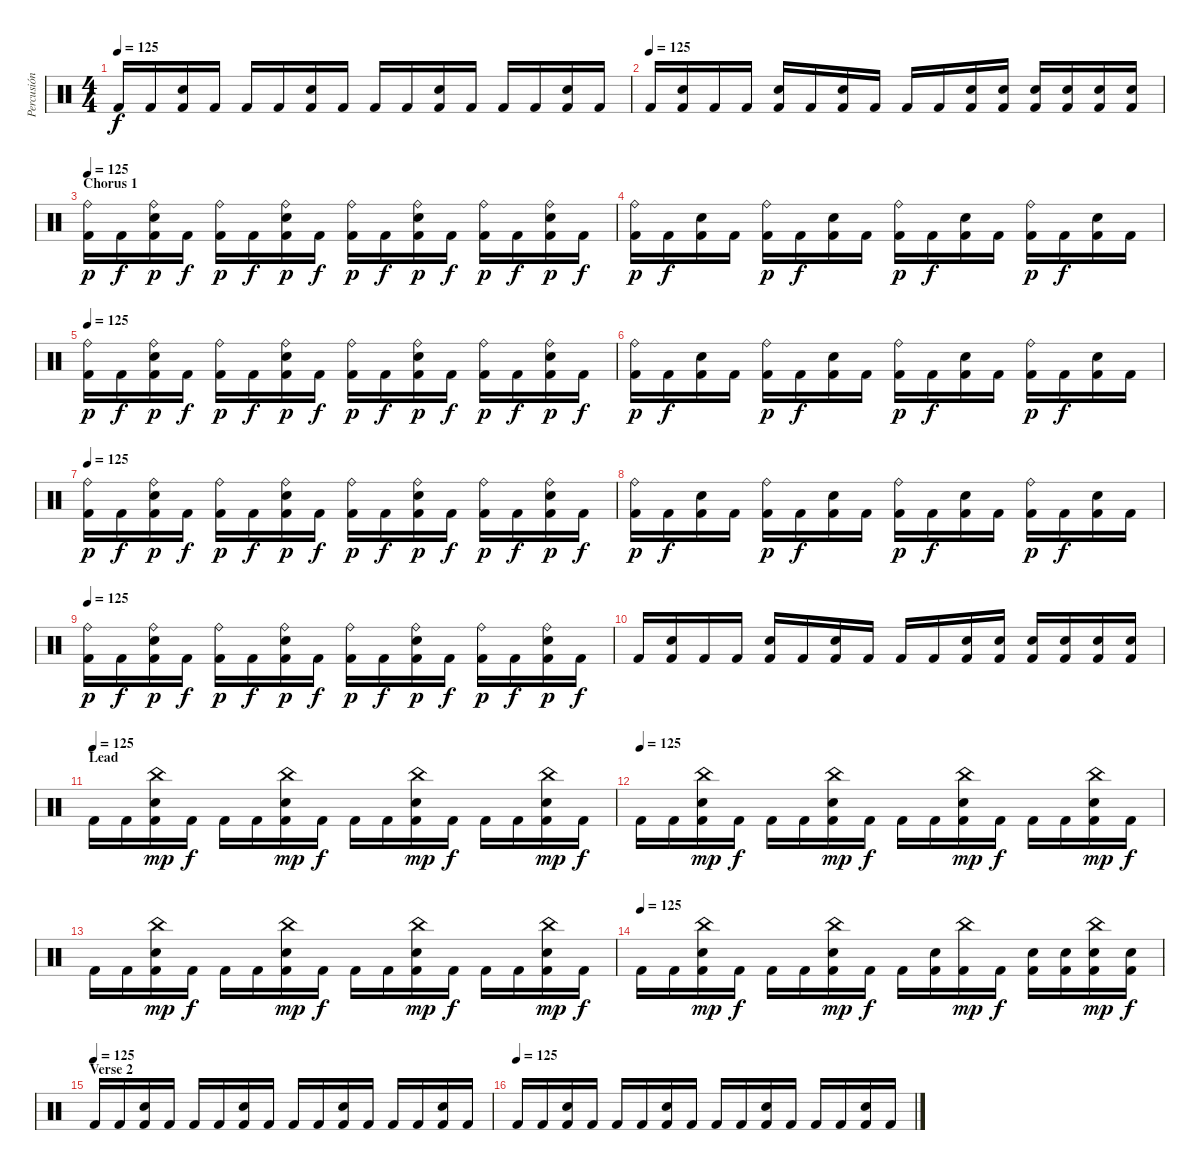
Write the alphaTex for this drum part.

\track ("Percusión" "Percusión") {instrument percussion}
\staff {score}
\articulation defaults
\ts (4 4)
\tempo 125
\clef neutral
\ks c "Kick (hit) 2".16{dy f} "Kick (hit) 2".16
("Electric Snare (hit)" "Kick (hit) 2").16 "Kick (hit) 2".16 "Kick (hit) 2".16 "Kick (hit) 2".16 ("Electric Snare (hit)" "Kick (hit) 2").16 "Kick (hit) 2".16 "Kick (hit) 2".16 "Kick (hit) 2".16 ("Electric Snare (hit)" "Kick (hit) 2").16 "Kick (hit) 2".16 "Kick (hit) 2".16 "Kick (hit) 2".16 ("Electric Snare (hit)" "Kick (hit) 2").16 "Kick (hit) 2".16 |
\tempo (125)
"Kick (hit) 2".16 ("Electric Snare (hit)" "Kick (hit) 2").16 "Kick (hit) 2".16 "Kick (hit) 2".16 ("Electric Snare (hit)" "Kick (hit) 2").16 "Kick (hit) 2".16 ("Electric Snare (hit)" "Kick (hit) 2").16 "Kick (hit) 2".16 "Kick (hit) 2".16 "Kick (hit) 2".16 ("Electric Snare (hit)" "Kick (hit) 2").16 ("Electric Snare (hit)" "Kick (hit) 2").16 ("Electric Snare (hit)" "Kick (hit) 2").16 ("Electric Snare (hit)" "Kick (hit) 2").16 ("Electric Snare (hit)" "Kick (hit) 2").16 ("Electric Snare (hit)" "Kick (hit) 2").16 |
\section ("" "Chorus 1")
\tempo 125
("Ride (bell)" "Kick (hit) 2").16{dy p} "Kick (hit) 2".16{dy f} ("Ride (bell)" "Electric Snare (hit)" "Kick (hit) 2").16{dy p} "Kick (hit) 2".16{dy f} ("Ride (bell)" "Kick (hit) 2").16{dy p} "Kick (hit) 2".16{dy f} ("Ride (bell)" "Electric Snare (hit)" "Kick (hit) 2").16{dy p} "Kick (hit) 2".16{dy f} ("Ride (bell)" "Kick (hit) 2").16{dy p} "Kick (hit) 2".16{dy f} ("Ride (bell)" "Electric Snare (hit)" "Kick (hit) 2").16{dy p} "Kick (hit) 2".16{dy f} ("Ride (bell)" "Kick (hit) 2").16{dy p} "Kick (hit) 2".16{dy f} ("Ride (bell)" "Electric Snare (hit)" "Kick (hit) 2").16{dy p} "Kick (hit) 2".16{dy f} |
("Ride (bell)" "Kick (hit) 2").16{dy p} "Kick (hit) 2".16{dy f} ("Electric Snare (hit)" "Kick (hit) 2").16 "Kick (hit) 2".16 ("Ride (bell)" "Kick (hit) 2").16{dy p} "Kick (hit) 2".16{dy f} ("Electric Snare (hit)" "Kick (hit) 2").16 "Kick (hit) 2".16 ("Ride (bell)" "Kick (hit) 2").16{dy p} "Kick (hit) 2".16{dy f} ("Electric Snare (hit)" "Kick (hit) 2").16 "Kick (hit) 2".16 ("Ride (bell)" "Kick (hit) 2").16{dy p} "Kick (hit) 2".16{dy f} ("Electric Snare (hit)" "Kick (hit) 2").16 "Kick (hit) 2".16 |
\tempo 125
("Ride (bell)" "Kick (hit) 2").16{dy p} "Kick (hit) 2".16{dy f} ("Ride (bell)" "Electric Snare (hit)" "Kick (hit) 2").16{dy p} "Kick (hit) 2".16{dy f} ("Ride (bell)" "Kick (hit) 2").16{dy p} "Kick (hit) 2".16{dy f} ("Ride (bell)" "Electric Snare (hit)" "Kick (hit) 2").16{dy p} "Kick (hit) 2".16{dy f} ("Ride (bell)" "Kick (hit) 2").16{dy p} "Kick (hit) 2".16{dy f} ("Ride (bell)" "Electric Snare (hit)" "Kick (hit) 2").16{dy p} "Kick (hit) 2".16{dy f} ("Ride (bell)" "Kick (hit) 2").16{dy p} "Kick (hit) 2".16{dy f} ("Ride (bell)" "Electric Snare (hit)" "Kick (hit) 2").16{dy p} "Kick (hit) 2".16{dy f} |
("Ride (bell)" "Kick (hit) 2").16{dy p} "Kick (hit) 2".16{dy f} ("Electric Snare (hit)" "Kick (hit) 2").16 "Kick (hit) 2".16 ("Ride (bell)" "Kick (hit) 2").16{dy p} "Kick (hit) 2".16{dy f} ("Electric Snare (hit)" "Kick (hit) 2").16 "Kick (hit) 2".16 ("Ride (bell)" "Kick (hit) 2").16{dy p} "Kick (hit) 2".16{dy f} ("Electric Snare (hit)" "Kick (hit) 2").16 "Kick (hit) 2".16 ("Ride (bell)" "Kick (hit) 2").16{dy p} "Kick (hit) 2".16{dy f} ("Electric Snare (hit)" "Kick (hit) 2").16 "Kick (hit) 2".16 |
\tempo 125
("Ride (bell)" "Kick (hit) 2").16{dy p} "Kick (hit) 2".16{dy f} ("Ride (bell)" "Electric Snare (hit)" "Kick (hit) 2").16{dy p} "Kick (hit) 2".16{dy f} ("Ride (bell)" "Kick (hit) 2").16{dy p} "Kick (hit) 2".16{dy f} ("Ride (bell)" "Electric Snare (hit)" "Kick (hit) 2").16{dy p} "Kick (hit) 2".16{dy f} ("Ride (bell)" "Kick (hit) 2").16{dy p} "Kick (hit) 2".16{dy f} ("Ride (bell)" "Electric Snare (hit)" "Kick (hit) 2").16{dy p} "Kick (hit) 2".16{dy f} ("Ride (bell)" "Kick (hit) 2").16{dy p} "Kick (hit) 2".16{dy f} ("Ride (bell)" "Electric Snare (hit)" "Kick (hit) 2").16{dy p} "Kick (hit) 2".16{dy f} |
("Ride (bell)" "Kick (hit) 2").16{dy p} "Kick (hit) 2".16{dy f} ("Electric Snare (hit)" "Kick (hit) 2").16 "Kick (hit) 2".16 ("Ride (bell)" "Kick (hit) 2").16{dy p} "Kick (hit) 2".16{dy f} ("Electric Snare (hit)" "Kick (hit) 2").16 "Kick (hit) 2".16 ("Ride (bell)" "Kick (hit) 2").16{dy p} "Kick (hit) 2".16{dy f} ("Electric Snare (hit)" "Kick (hit) 2").16 "Kick (hit) 2".16 ("Ride (bell)" "Kick (hit) 2").16{dy p} "Kick (hit) 2".16{dy f} ("Electric Snare (hit)" "Kick (hit) 2").16 "Kick (hit) 2".16 |
\tempo 125
("Ride (bell)" "Kick (hit) 2").16{dy p} "Kick (hit) 2".16{dy f} ("Ride (bell)" "Electric Snare (hit)" "Kick (hit) 2").16{dy p} "Kick (hit) 2".16{dy f} ("Ride (bell)" "Kick (hit) 2").16{dy p} "Kick (hit) 2".16{dy f} ("Ride (bell)" "Electric Snare (hit)" "Kick (hit) 2").16{dy p} "Kick (hit) 2".16{dy f} ("Ride (bell)" "Kick (hit) 2").16{dy p} "Kick (hit) 2".16{dy f} ("Ride (bell)" "Electric Snare (hit)" "Kick (hit) 2").16{dy p} "Kick (hit) 2".16{dy f} ("Ride (bell)" "Kick (hit) 2").16{dy p} "Kick (hit) 2".16{dy f} ("Ride (bell)" "Electric Snare (hit)" "Kick (hit) 2").16{dy p} "Kick (hit) 2".16{dy f} |
"Kick (hit) 2".16 ("Electric Snare (hit)" "Kick (hit) 2").16 "Kick (hit) 2".16 "Kick (hit) 2".16 ("Electric Snare (hit)" "Kick (hit) 2").16 "Kick (hit) 2".16 ("Electric Snare (hit)" "Kick (hit) 2").16 "Kick (hit) 2".16 "Kick (hit) 2".16 "Kick (hit) 2".16 ("Electric Snare (hit)" "Kick (hit) 2").16 ("Electric Snare (hit)" "Kick (hit) 2").16 ("Electric Snare (hit)" "Kick (hit) 2").16 ("Electric Snare (hit)" "Kick (hit) 2").16 ("Electric Snare (hit)" "Kick (hit) 2").16 ("Electric Snare (hit)" "Kick (hit) 2").16 |
\section ("" "Lead")
\tempo (125)
"Kick (hit) 2".16 "Kick (hit) 2".16 ("China (hit)" "Electric Snare (hit)" "Kick (hit) 2").16{dy mp} "Kick (hit) 2".16{dy f} "Kick (hit) 2".16 "Kick (hit) 2".16 ("China (hit)" "Electric Snare (hit)" "Kick (hit) 2").16{dy mp} "Kick (hit) 2".16{dy f} "Kick (hit) 2".16 "Kick (hit) 2".16 ("China (hit)" "Electric Snare (hit)" "Kick (hit) 2").16{dy mp} "Kick (hit) 2".16{dy f} "Kick (hit) 2".16 "Kick (hit) 2".16 ("China (hit)" "Electric Snare (hit)" "Kick (hit) 2").16{dy mp} "Kick (hit) 2".16{dy f} |
\tempo (125)
"Kick (hit) 2".16 "Kick (hit) 2".16 ("China (hit)" "Electric Snare (hit)" "Kick (hit) 2").16{dy mp} "Kick (hit) 2".16{dy f} "Kick (hit) 2".16 "Kick (hit) 2".16 ("China (hit)" "Electric Snare (hit)" "Kick (hit) 2").16{dy mp} "Kick (hit) 2".16{dy f} "Kick (hit) 2".16 "Kick (hit) 2".16 ("China (hit)" "Electric Snare (hit)" "Kick (hit) 2").16{dy mp} "Kick (hit) 2".16{dy f} "Kick (hit) 2".16 "Kick (hit) 2".16 ("China (hit)" "Electric Snare (hit)" "Kick (hit) 2").16{dy mp} "Kick (hit) 2".16{dy f} |
"Kick (hit) 2".16 "Kick (hit) 2".16 ("China (hit)" "Electric Snare (hit)" "Kick (hit) 2").16{dy mp} "Kick (hit) 2".16{dy f} "Kick (hit) 2".16 "Kick (hit) 2".16 ("China (hit)" "Electric Snare (hit)" "Kick (hit) 2").16{dy mp} "Kick (hit) 2".16{dy f} "Kick (hit) 2".16 "Kick (hit) 2".16 ("China (hit)" "Electric Snare (hit)" "Kick (hit) 2").16{dy mp} "Kick (hit) 2".16{dy f} "Kick (hit) 2".16 "Kick (hit) 2".16 ("China (hit)" "Electric Snare (hit)" "Kick (hit) 2").16{dy mp} "Kick (hit) 2".16{dy f} |
\tempo (125)
"Kick (hit) 2".16 "Kick (hit) 2".16 ("China (hit)" "Electric Snare (hit)" "Kick (hit) 2").16{dy mp} "Kick (hit) 2".16{dy f} "Kick (hit) 2".16 "Kick (hit) 2".16 ("China (hit)" "Electric Snare (hit)" "Kick (hit) 2").16{dy mp} "Kick (hit) 2".16{dy f} "Kick (hit) 2".16 ("Electric Snare (hit)" "Kick (hit) 2").16 ("China (hit)" "Kick (hit) 2").16{dy mp} "Kick (hit) 2".16{dy f} ("Electric Snare (hit)" "Kick (hit) 2").16 ("Electric Snare (hit)" "Kick (hit) 2").16 ("China (hit)" "Electric Snare (hit)" "Kick (hit) 2").16{dy mp} ("Electric Snare (hit)" "Kick (hit) 2").16{dy f} |
\section ("" "Verse 2")
\tempo (125)
"Kick (hit) 2".16 "Kick (hit) 2".16 ("Electric Snare (hit)" "Kick (hit) 2").16 "Kick (hit) 2".16 "Kick (hit) 2".16 "Kick (hit) 2".16 ("Electric Snare (hit)" "Kick (hit) 2").16 "Kick (hit) 2".16 "Kick (hit) 2".16 "Kick (hit) 2".16 ("Electric Snare (hit)" "Kick (hit) 2").16 "Kick (hit) 2".16 "Kick (hit) 2".16 "Kick (hit) 2".16 ("Electric Snare (hit)" "Kick (hit) 2").16 "Kick (hit) 2".16 |
\tempo (125)
"Kick (hit) 2".16 "Kick (hit) 2".16 ("Electric Snare (hit)" "Kick (hit) 2").16 "Kick (hit) 2".16 "Kick (hit) 2".16 "Kick (hit) 2".16 ("Electric Snare (hit)" "Kick (hit) 2").16 "Kick (hit) 2".16 "Kick (hit) 2".16 "Kick (hit) 2".16 ("Electric Snare (hit)" "Kick (hit) 2").16 "Kick (hit) 2".16 "Kick (hit) 2".16 "Kick (hit) 2".16 ("Electric Snare (hit)" "Kick (hit) 2").16 "Kick (hit) 2".16
